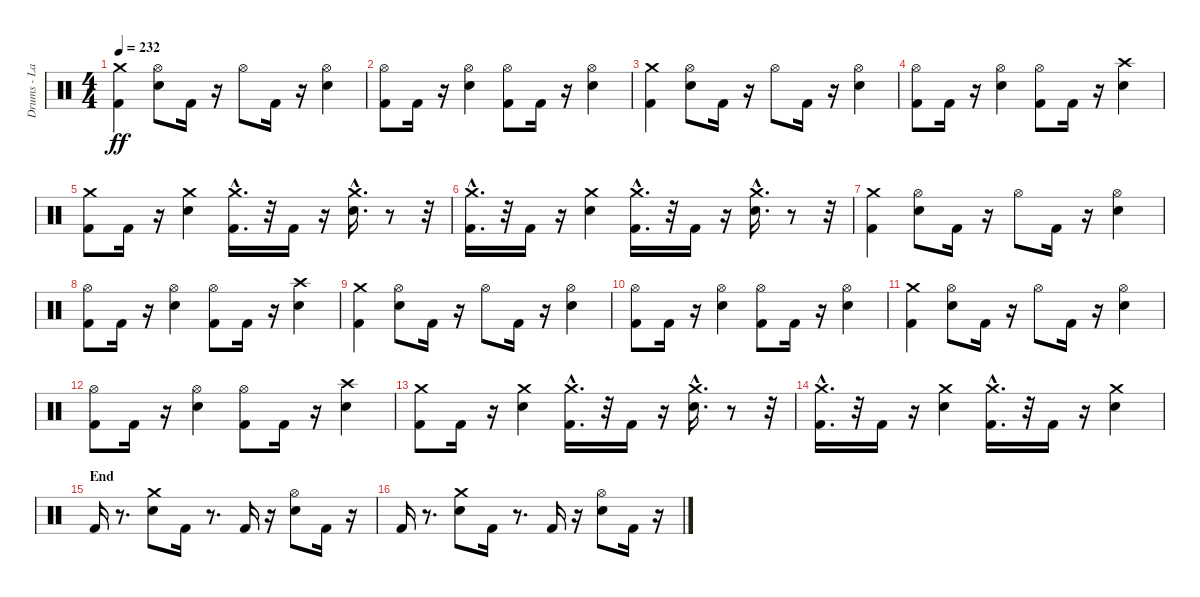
\track ("Drums - Larzon" "Drums - La") {instrument percussion}
\staff {score}
\articulation defaults
\ts (4 4)
\tempo 232
\clef neutral
\ks c
("Kick (hit) 2" "Crash medium (hit)").4{dy ff} ("Electric Snare (hit)" "Hi-Hat (open)").8 "Kick (hit) 2".16 r.16 "Hi-Hat (open)".8 "Kick (hit) 2".16 r.16 ("Electric Snare (hit)" "Hi-Hat (open)").4 |
("Kick (hit) 2" "Hi-Hat (open)").8 "Kick (hit) 2".16 r.16 ("Electric Snare (hit)" "Hi-Hat (open)").4 ("Kick (hit) 2" "Hi-Hat (open)").8 "Kick (hit) 2".16 r.16 ("Electric Snare (hit)" "Hi-Hat (open)").4 |
("Kick (hit) 2" "Crash medium (hit)").4 ("Electric Snare (hit)" "Hi-Hat (open)").8 "Kick (hit) 2".16 r.16 "Hi-Hat (open)".8 "Kick (hit) 2".16 r.16 ("Electric Snare (hit)" "Hi-Hat (open)").4 |
("Kick (hit) 2" "Hi-Hat (open)").8 "Kick (hit) 2".16 r.16 ("Electric Snare (hit)" "Hi-Hat (open)").4 ("Kick (hit) 2" "Hi-Hat (open)").8 "Kick (hit) 2".16 r.16 ("Electric Snare (hit)" "Crash high (hit)").4 |
("Kick (hit) 2" "Crash medium (hit)").8 "Kick (hit) 2".16 r.16 ("Electric Snare (hit)" "Crash medium (hit)").4 ("Crash medium (hit)"{hac} "Kick (hit) 2").16{d} r.32 "Kick (hit) 2".16 r.16 ("Electric Snare (hit)" "Crash medium (hit)"{hac}).16{d} r.8 r.32 |
("Kick (hit) 2" "Crash medium (hit)"{hac}).16{d} r.32 "Kick (hit) 2".16 r.16 ("Electric Snare (hit)" "Crash medium (hit)").4 ("Kick (hit) 2" "Crash medium (hit)"{hac}).16{d} r.32 "Kick (hit) 2".16 r.16 ("Electric Snare (hit)" "Crash medium (hit)"{hac}).16{d} r.8 r.32 |
("Kick (hit) 2" "Crash medium (hit)").4 ("Electric Snare (hit)" "Hi-Hat (open)").8 "Kick (hit) 2".16 r.16 "Hi-Hat (open)".8 "Kick (hit) 2".16 r.16 ("Electric Snare (hit)" "Hi-Hat (open)").4 |
("Kick (hit) 2" "Hi-Hat (open)").8 "Kick (hit) 2".16 r.16 ("Electric Snare (hit)" "Hi-Hat (open)").4 ("Kick (hit) 2" "Hi-Hat (open)").8 "Kick (hit) 2".16 r.16 ("Electric Snare (hit)" "Crash high (hit)").4 |
("Kick (hit) 2" "Crash medium (hit)").4 ("Electric Snare (hit)" "Hi-Hat (open)").8 "Kick (hit) 2".16 r.16 "Hi-Hat (open)".8 "Kick (hit) 2".16 r.16 ("Electric Snare (hit)" "Hi-Hat (open)").4 |
("Kick (hit) 2" "Hi-Hat (open)").8 "Kick (hit) 2".16 r.16 ("Electric Snare (hit)" "Hi-Hat (open)").4 ("Kick (hit) 2" "Hi-Hat (open)").8 "Kick (hit) 2".16 r.16 ("Electric Snare (hit)" "Hi-Hat (open)").4 |
("Kick (hit) 2" "Crash medium (hit)").4 ("Electric Snare (hit)" "Hi-Hat (open)").8 "Kick (hit) 2".16 r.16 "Hi-Hat (open)".8 "Kick (hit) 2".16 r.16 ("Electric Snare (hit)" "Hi-Hat (open)").4 |
("Kick (hit) 2" "Hi-Hat (open)").8 "Kick (hit) 2".16 r.16 ("Electric Snare (hit)" "Hi-Hat (open)").4 ("Kick (hit) 2" "Hi-Hat (open)").8 "Kick (hit) 2".16 r.16 ("Electric Snare (hit)" "Crash high (hit)").4 |
("Kick (hit) 2" "Crash medium (hit)").8 "Kick (hit) 2".16 r.16 ("Electric Snare (hit)" "Crash medium (hit)").4 ("Crash medium (hit)"{hac} "Kick (hit) 2").16{d} r.32 "Kick (hit) 2".16 r.16 ("Electric Snare (hit)" "Crash medium (hit)"{hac}).16{d} r.8 r.32 |
("Kick (hit) 2" "Crash medium (hit)"{hac}).16{d} r.32 "Kick (hit) 2".16 r.16 ("Electric Snare (hit)" "Crash medium (hit)").4 ("Kick (hit) 2" "Crash medium (hit)"{hac}).16{d} r.32 "Kick (hit) 2".16 r.16 ("Electric Snare (hit)" "Crash medium (hit)").4 |
\section ("" "End")
"Kick (hit) 2".16 r.8{d} ("Electric Snare (hit)" "Crash medium (hit)").8 "Kick (hit) 2".16 r.8{d} "Kick (hit) 2".16 r.16 ("Electric Snare (hit)" "Hi-Hat (open)").8 "Kick (hit) 2".16 r.16 |
"Kick (hit) 2".16 r.8{d} ("Electric Snare (hit)" "Crash medium (hit)").8 "Kick (hit) 2".16 r.8{d} "Kick (hit) 2".16 r.16 ("Electric Snare (hit)" "Hi-Hat (open)").8 "Kick (hit) 2".16 r.16
